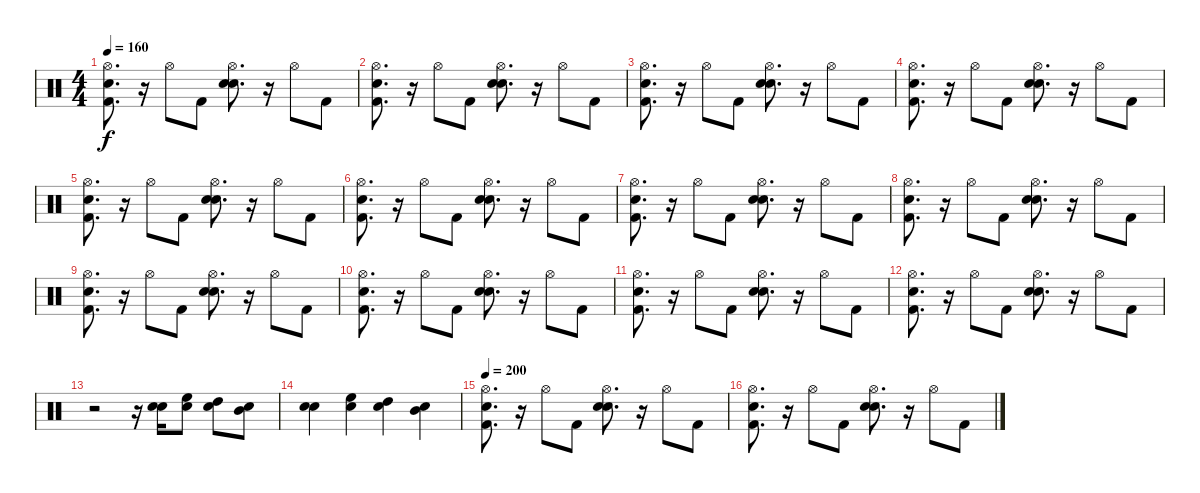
\track "" {instrument percussion}
\staff {score}
\articulation defaults
\ts (4 4)
\tempo 160
\clef neutral
\ks c
("Snare (hit)" "Kick (hit) 2" "Hi-Hat (open)").8{d dy f} r.16 "Hi-Hat (open)".8 "Kick (hit) 2".8 ("Snare (hit)" "Snare (hit) 2" "Hi-Hat (open)").8{d} r.16 "Hi-Hat (open)".8 "Kick (hit) 2".8 |
("Snare (hit)" "Kick (hit) 2" "Hi-Hat (open)").8{d} r.16 "Hi-Hat (open)".8 "Kick (hit) 2".8 ("Snare (hit)" "Snare (hit) 2" "Hi-Hat (open)").8{d} r.16 "Hi-Hat (open)".8 "Kick (hit) 2".8 |
("Snare (hit)" "Kick (hit) 2" "Hi-Hat (open)").8{d} r.16 "Hi-Hat (open)".8 "Kick (hit) 2".8 ("Snare (hit)" "Snare (hit) 2" "Hi-Hat (open)").8{d} r.16 "Hi-Hat (open)".8 "Kick (hit) 2".8 |
("Snare (hit)" "Kick (hit) 2" "Hi-Hat (open)").8{d} r.16 "Hi-Hat (open)".8 "Kick (hit) 2".8 ("Snare (hit)" "Snare (hit) 2" "Hi-Hat (open)").8{d} r.16 "Hi-Hat (open)".8 "Kick (hit) 2".8 |
("Snare (hit)" "Kick (hit) 2" "Hi-Hat (open)").8{d} r.16 "Hi-Hat (open)".8 "Kick (hit) 2".8 ("Snare (hit)" "Snare (hit) 2" "Hi-Hat (open)").8{d} r.16 "Hi-Hat (open)".8 "Kick (hit) 2".8 |
("Snare (hit)" "Kick (hit) 2" "Hi-Hat (open)").8{d} r.16 "Hi-Hat (open)".8 "Kick (hit) 2".8 ("Snare (hit)" "Snare (hit) 2" "Hi-Hat (open)").8{d} r.16 "Hi-Hat (open)".8 "Kick (hit) 2".8 |
("Snare (hit)" "Kick (hit) 2" "Hi-Hat (open)").8{d} r.16 "Hi-Hat (open)".8 "Kick (hit) 2".8 ("Snare (hit)" "Snare (hit) 2" "Hi-Hat (open)").8{d} r.16 "Hi-Hat (open)".8 "Kick (hit) 2".8 |
("Snare (hit)" "Kick (hit) 2" "Hi-Hat (open)").8{d} r.16 "Hi-Hat (open)".8 "Kick (hit) 2".8 ("Snare (hit)" "Snare (hit) 2" "Hi-Hat (open)").8{d} r.16 "Hi-Hat (open)".8 "Kick (hit) 2".8 |
("Snare (hit)" "Kick (hit) 2" "Hi-Hat (open)").8{d} r.16 "Hi-Hat (open)".8 "Kick (hit) 2".8 ("Snare (hit)" "Snare (hit) 2" "Hi-Hat (open)").8{d} r.16 "Hi-Hat (open)".8 "Kick (hit) 2".8 |
("Snare (hit)" "Kick (hit) 2" "Hi-Hat (open)").8{d} r.16 "Hi-Hat (open)".8 "Kick (hit) 2".8 ("Snare (hit)" "Snare (hit) 2" "Hi-Hat (open)").8{d} r.16 "Hi-Hat (open)".8 "Kick (hit) 2".8 |
("Snare (hit)" "Kick (hit) 2" "Hi-Hat (open)").8{d} r.16 "Hi-Hat (open)".8 "Kick (hit) 2".8 ("Snare (hit)" "Snare (hit) 2" "Hi-Hat (open)").8{d} r.16 "Hi-Hat (open)".8 "Kick (hit) 2".8 |
("Snare (hit)" "Kick (hit) 2" "Hi-Hat (open)").8{d} r.16 "Hi-Hat (open)".8 "Kick (hit) 2".8 ("Snare (hit)" "Snare (hit) 2" "Hi-Hat (open)").8{d} r.16 "Hi-Hat (open)".8 "Kick (hit) 2".8 |
r.2 r.16 ("Snare (hit)" "Snare (hit) 2").16 ("Snare (hit)" "High Floor Tom (hit)").8 ("Snare (hit)" "High Tom (hit)").8 ("Snare (hit)" "Mid Tom (hit)").8 |
("Snare (hit)" "Snare (hit) 2").4 ("Snare (hit)" "High Floor Tom (hit)").4 ("Snare (hit)" "High Tom (hit)").4 ("Snare (hit)" "Mid Tom (hit)").4 |
\tempo 200
("Snare (hit)" "Kick (hit) 2" "Hi-Hat (open)").8{d} r.16 "Hi-Hat (open)".8 "Kick (hit) 2".8 ("Snare (hit)" "Snare (hit) 2" "Hi-Hat (open)").8{d} r.16 "Hi-Hat (open)".8 "Kick (hit) 2".8 |
("Snare (hit)" "Kick (hit) 2" "Hi-Hat (open)").8{d} r.16 "Hi-Hat (open)".8 "Kick (hit) 2".8 ("Snare (hit)" "Snare (hit) 2" "Hi-Hat (open)").8{d} r.16 "Hi-Hat (open)".8 "Kick (hit) 2".8
